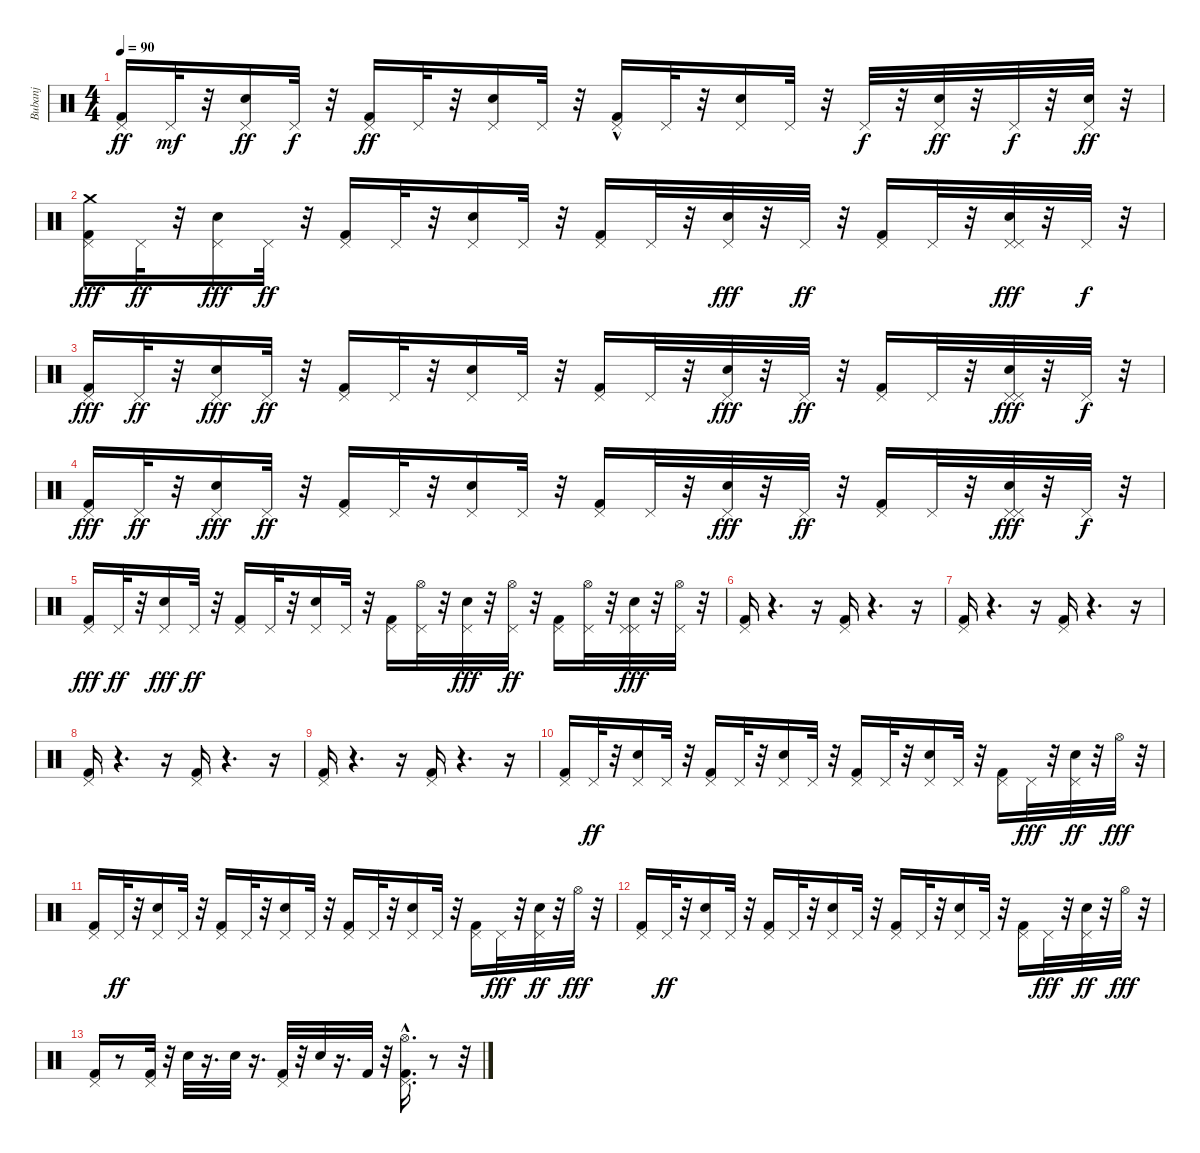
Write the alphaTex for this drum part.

\track ("Bubanj" "Bubanj") {instrument percussion}
\staff {score}
\articulation defaults
\ts (4 4)
\tempo 90
\clef neutral
\ks c
("Pedal Hi-Hat (hit)" "Kick (hit) 2").16{dy ff} "Pedal Hi-Hat (hit)".32{dy mf} r.32 ("Electric Snare (hit)" "Pedal Hi-Hat (hit)").16{dy ff} "Pedal Hi-Hat (hit)".32{dy f} r.32 ("Kick (hit) 2" "Pedal Hi-Hat (hit)").16{dy ff} "Pedal Hi-Hat (hit)".32 r.32 ("Electric Snare (hit)" "Pedal Hi-Hat (hit)").16 "Pedal Hi-Hat (hit)".32 r.32 ("Kick (hit) 2"{hac} "Pedal Hi-Hat (hit)").16 "Pedal Hi-Hat (hit)".32 r.32 ("Electric Snare (hit)" "Pedal Hi-Hat (hit)").16 "Pedal Hi-Hat (hit)".32 r.32 "Pedal Hi-Hat (hit)".32{dy f} r.32 ("Electric Snare (hit)" "Pedal Hi-Hat (hit)").32{dy ff} r.32 "Pedal Hi-Hat (hit)".32{dy f} r.32 ("Electric Snare (hit)" "Pedal Hi-Hat (hit)").32{dy ff} r.32 |
("Crash medium (hit)" "Pedal Hi-Hat (hit)" "Kick (hit) 2").16{dy fff} "Pedal Hi-Hat (hit)".32{dy ff} r.32 ("Pedal Hi-Hat (hit)" "Electric Snare (hit)").16{dy fff} "Pedal Hi-Hat (hit)".32{dy ff} r.32 ("Pedal Hi-Hat (hit)" "Kick (hit) 2").16 "Pedal Hi-Hat (hit)".32 r.32 ("Pedal Hi-Hat (hit)" "Electric Snare (hit)").16 "Pedal Hi-Hat (hit)".32 r.32 ("Pedal Hi-Hat (hit)" "Kick (hit) 2").16 "Pedal Hi-Hat (hit)".32 r.32 ("Pedal Hi-Hat (hit)" "Electric Snare (hit)").32{dy fff} r.32 "Pedal Hi-Hat (hit)".32{dy ff} r.32 ("Pedal Hi-Hat (hit)" "Kick (hit) 2").16 "Pedal Hi-Hat (hit)".32 r.32 ("Pedal Hi-Hat (hit)" "Pedal Hi-Hat (hit)" "Electric Snare (hit)").32{dy fff} r.32 "Pedal Hi-Hat (hit)".32{dy f} r.32 |
("Pedal Hi-Hat (hit)" "Kick (hit) 2").16{dy fff} "Pedal Hi-Hat (hit)".32{dy ff} r.32 ("Pedal Hi-Hat (hit)" "Electric Snare (hit)").16{dy fff} "Pedal Hi-Hat (hit)".32{dy ff} r.32 ("Pedal Hi-Hat (hit)" "Kick (hit) 2").16 "Pedal Hi-Hat (hit)".32 r.32 ("Pedal Hi-Hat (hit)" "Electric Snare (hit)").16 "Pedal Hi-Hat (hit)".32 r.32 ("Pedal Hi-Hat (hit)" "Kick (hit) 2").16 "Pedal Hi-Hat (hit)".32 r.32 ("Pedal Hi-Hat (hit)" "Electric Snare (hit)").32{dy fff} r.32 "Pedal Hi-Hat (hit)".32{dy ff} r.32 ("Pedal Hi-Hat (hit)" "Kick (hit) 2").16 "Pedal Hi-Hat (hit)".32 r.32 ("Pedal Hi-Hat (hit)" "Pedal Hi-Hat (hit)" "Electric Snare (hit)").32{dy fff} r.32 "Pedal Hi-Hat (hit)".32{dy f} r.32 |
("Pedal Hi-Hat (hit)" "Kick (hit) 2").16{dy fff} "Pedal Hi-Hat (hit)".32{dy ff} r.32 ("Pedal Hi-Hat (hit)" "Electric Snare (hit)").16{dy fff} "Pedal Hi-Hat (hit)".32{dy ff} r.32 ("Pedal Hi-Hat (hit)" "Kick (hit) 2").16 "Pedal Hi-Hat (hit)".32 r.32 ("Pedal Hi-Hat (hit)" "Electric Snare (hit)").16 "Pedal Hi-Hat (hit)".32 r.32 ("Pedal Hi-Hat (hit)" "Kick (hit) 2").16 "Pedal Hi-Hat (hit)".32 r.32 ("Pedal Hi-Hat (hit)" "Electric Snare (hit)").32{dy fff} r.32 "Pedal Hi-Hat (hit)".32{dy ff} r.32 ("Pedal Hi-Hat (hit)" "Kick (hit) 2").16 "Pedal Hi-Hat (hit)".32 r.32 ("Pedal Hi-Hat (hit)" "Pedal Hi-Hat (hit)" "Electric Snare (hit)").32{dy fff} r.32 "Pedal Hi-Hat (hit)".32{dy f} r.32 |
("Pedal Hi-Hat (hit)" "Kick (hit) 2").16{dy fff} "Pedal Hi-Hat (hit)".32{dy ff} r.32 ("Pedal Hi-Hat (hit)" "Electric Snare (hit)").16{dy fff} "Pedal Hi-Hat (hit)".32{dy ff} r.32 ("Pedal Hi-Hat (hit)" "Kick (hit) 2").16 "Pedal Hi-Hat (hit)".32 r.32 ("Pedal Hi-Hat (hit)" "Electric Snare (hit)").16 "Pedal Hi-Hat (hit)".32 r.32 ("Pedal Hi-Hat (hit)" "Kick (hit) 2").16 ("Hi-Hat (open)" "Pedal Hi-Hat (hit)").32 r.32 ("Pedal Hi-Hat (hit)" "Electric Snare (hit)").32{dy fff} r.32 ("Hi-Hat (open)" "Pedal Hi-Hat (hit)").32{dy ff} r.32 ("Pedal Hi-Hat (hit)" "Kick (hit) 2").16 ("Hi-Hat (open)" "Pedal Hi-Hat (hit)").32 r.32 ("Pedal Hi-Hat (hit)" "Pedal Hi-Hat (hit)" "Electric Snare (hit)").32{dy fff} r.32 ("Hi-Hat (open)" "Pedal Hi-Hat (hit)").32 r.32 |
("Kick (hit) 2" "Pedal Hi-Hat (hit)").16 r.4{d} r.16 ("Kick (hit) 2" "Pedal Hi-Hat (hit)").16 r.4{d} r.16 |
("Kick (hit) 2" "Pedal Hi-Hat (hit)").16 r.4{d} r.16 ("Kick (hit) 2" "Pedal Hi-Hat (hit)").16 r.4{d} r.16 |
("Kick (hit) 2" "Pedal Hi-Hat (hit)").16 r.4{d} r.16 ("Kick (hit) 2" "Pedal Hi-Hat (hit)").16 r.4{d} r.16 |
("Kick (hit) 2" "Pedal Hi-Hat (hit)").16 r.4{d} r.16 ("Kick (hit) 2" "Pedal Hi-Hat (hit)").16 r.4{d} r.16 |
("Pedal Hi-Hat (hit)" "Kick (hit) 2").16 "Pedal Hi-Hat (hit)".32{dy ff} r.32 ("Pedal Hi-Hat (hit)" "Electric Snare (hit)").16 "Pedal Hi-Hat (hit)".32 r.32 ("Pedal Hi-Hat (hit)" "Kick (hit) 2").16 "Pedal Hi-Hat (hit)".32 r.32 ("Pedal Hi-Hat (hit)" "Electric Snare (hit)").16 "Pedal Hi-Hat (hit)".32 r.32 ("Pedal Hi-Hat (hit)" "Kick (hit) 2").16 "Pedal Hi-Hat (hit)".32 r.32 ("Pedal Hi-Hat (hit)" "Electric Snare (hit)").16 "Pedal Hi-Hat (hit)".32 r.32 ("Pedal Hi-Hat (hit)" "Kick (hit) 2").16 "Pedal Hi-Hat (hit)".32{dy fff} r.32 ("Pedal Hi-Hat (hit)" "Electric Snare (hit)").32{dy ff} r.32 "Hi-Hat (open)".32{dy fff} r.32 |
("Pedal Hi-Hat (hit)" "Kick (hit) 2").16 "Pedal Hi-Hat (hit)".32{dy ff} r.32 ("Pedal Hi-Hat (hit)" "Electric Snare (hit)").16 "Pedal Hi-Hat (hit)".32 r.32 ("Pedal Hi-Hat (hit)" "Kick (hit) 2").16 "Pedal Hi-Hat (hit)".32 r.32 ("Pedal Hi-Hat (hit)" "Electric Snare (hit)").16 "Pedal Hi-Hat (hit)".32 r.32 ("Pedal Hi-Hat (hit)" "Kick (hit) 2").16 "Pedal Hi-Hat (hit)".32 r.32 ("Pedal Hi-Hat (hit)" "Electric Snare (hit)").16 "Pedal Hi-Hat (hit)".32 r.32 ("Pedal Hi-Hat (hit)" "Kick (hit) 2").16 "Pedal Hi-Hat (hit)".32{dy fff} r.32 ("Pedal Hi-Hat (hit)" "Electric Snare (hit)").32{dy ff} r.32 "Hi-Hat (open)".32{dy fff} r.32 |
("Pedal Hi-Hat (hit)" "Kick (hit) 2").16 "Pedal Hi-Hat (hit)".32{dy ff} r.32 ("Pedal Hi-Hat (hit)" "Electric Snare (hit)").16 "Pedal Hi-Hat (hit)".32 r.32 ("Pedal Hi-Hat (hit)" "Kick (hit) 2").16 "Pedal Hi-Hat (hit)".32 r.32 ("Pedal Hi-Hat (hit)" "Electric Snare (hit)").16 "Pedal Hi-Hat (hit)".32 r.32 ("Pedal Hi-Hat (hit)" "Kick (hit) 2").16 "Pedal Hi-Hat (hit)".32 r.32 ("Pedal Hi-Hat (hit)" "Electric Snare (hit)").16 "Pedal Hi-Hat (hit)".32 r.32 ("Pedal Hi-Hat (hit)" "Kick (hit) 2").16 "Pedal Hi-Hat (hit)".32{dy fff} r.32 ("Pedal Hi-Hat (hit)" "Electric Snare (hit)").32{dy ff} r.32 "Hi-Hat (open)".32{dy fff} r.32 |
("Kick (hit) 2" "Pedal Hi-Hat (hit)").16 r.8 ("Kick (hit) 2" "Pedal Hi-Hat (hit)").32 r.32 "Electric Snare (hit)".32 r.16{d} "Electric Snare (hit)".32 r.16{d} ("Kick (hit) 2" "Pedal Hi-Hat (hit)").32 r.32 "Electric Snare (hit)".32 r.16{d} "Kick (hit) 2".32 r.32 ("Hi-Hat (open)"{hac} "Kick (hit) 2" "Pedal Hi-Hat (hit)").16{d} r.8 r.32
